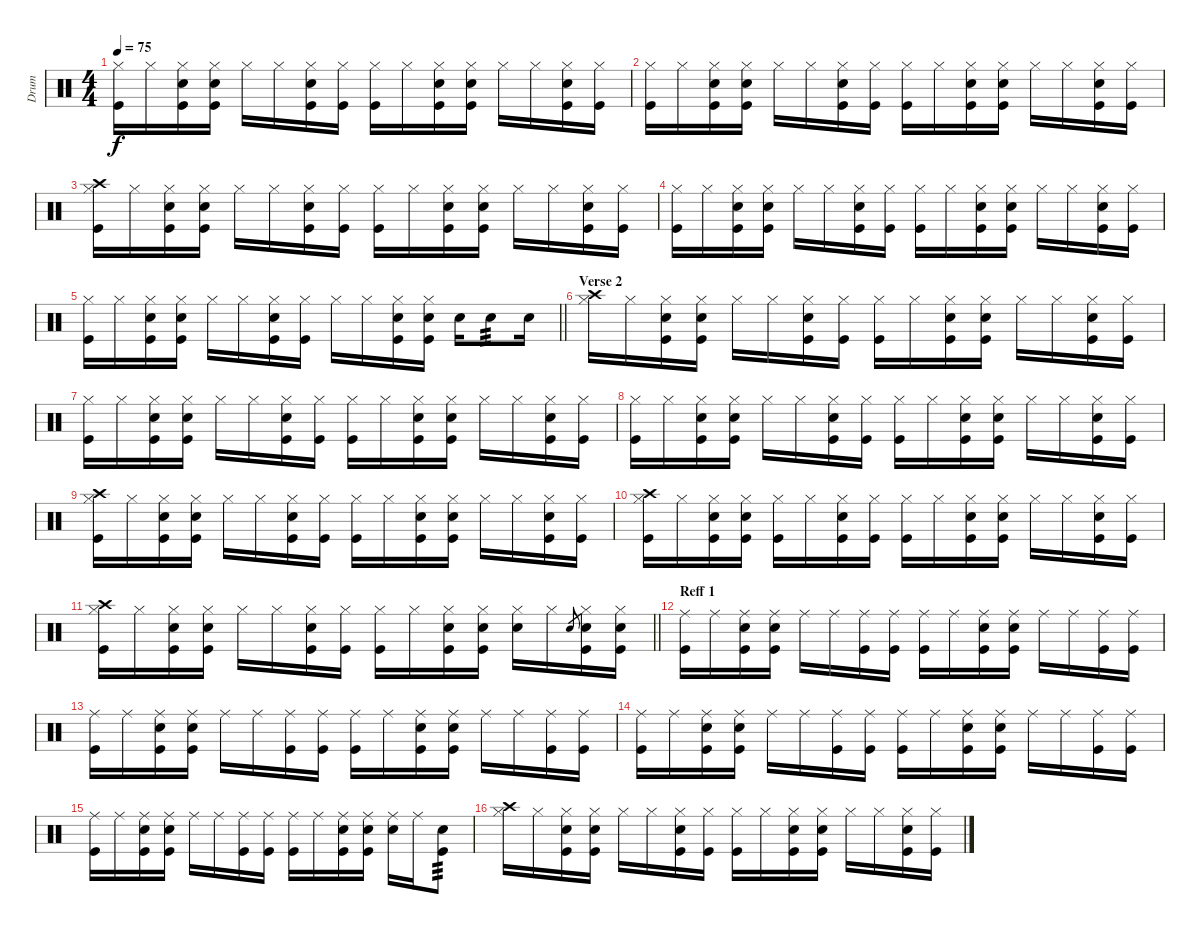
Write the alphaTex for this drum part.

\track ("Drum" "Drum") {instrument percussion}
\staff {score}
\articulation defaults
\ts (4 4)
\tempo 75
\clef neutral
\ks c
("Hi-Hat (closed)" "Kick (hit)").16{dy f} "Hi-Hat (closed)".16 ("Hi-Hat (closed)" "Electric Snare (hit)" "Kick (hit)").16 ("Hi-Hat (closed)" "Electric Snare (hit)" "Kick (hit)").16 "Hi-Hat (closed)".16 "Hi-Hat (closed)".16 ("Hi-Hat (closed)" "Electric Snare (hit)" "Kick (hit)").16 ("Hi-Hat (closed)" "Kick (hit)").16 ("Hi-Hat (closed)" "Kick (hit)").16 "Hi-Hat (closed)".16 ("Hi-Hat (closed)" "Electric Snare (hit)" "Kick (hit)").16 ("Hi-Hat (closed)" "Electric Snare (hit)" "Kick (hit)").16 "Hi-Hat (closed)".16 "Hi-Hat (closed)".16 ("Hi-Hat (closed)" "Electric Snare (hit)" "Kick (hit)").16 ("Hi-Hat (closed)" "Kick (hit)").16 |
("Hi-Hat (closed)" "Kick (hit)").16 "Hi-Hat (closed)".16 ("Hi-Hat (closed)" "Electric Snare (hit)" "Kick (hit)").16 ("Hi-Hat (closed)" "Electric Snare (hit)" "Kick (hit)").16 "Hi-Hat (closed)".16 "Hi-Hat (closed)".16 ("Hi-Hat (closed)" "Electric Snare (hit)" "Kick (hit)").16 ("Hi-Hat (closed)" "Kick (hit)").16 ("Hi-Hat (closed)" "Kick (hit)").16 "Hi-Hat (closed)".16 ("Hi-Hat (closed)" "Electric Snare (hit)" "Kick (hit)").16 ("Hi-Hat (closed)" "Electric Snare (hit)" "Kick (hit)").16 "Hi-Hat (closed)".16 "Hi-Hat (closed)".16 ("Hi-Hat (closed)" "Electric Snare (hit)" "Kick (hit)").16 ("Hi-Hat (closed)" "Kick (hit)").16 |
("Hi-Hat (closed)" "Crash high (hit)" "Kick (hit)").16 "Hi-Hat (closed)".16 ("Hi-Hat (closed)" "Electric Snare (hit)" "Kick (hit)").16 ("Hi-Hat (closed)" "Electric Snare (hit)" "Kick (hit)").16 "Hi-Hat (closed)".16 "Hi-Hat (closed)".16 ("Hi-Hat (closed)" "Electric Snare (hit)" "Kick (hit)").16 ("Hi-Hat (closed)" "Kick (hit)").16 ("Hi-Hat (closed)" "Kick (hit)").16 "Hi-Hat (closed)".16 ("Hi-Hat (closed)" "Electric Snare (hit)" "Kick (hit)").16 ("Hi-Hat (closed)" "Electric Snare (hit)" "Kick (hit)").16 "Hi-Hat (closed)".16 "Hi-Hat (closed)".16 ("Hi-Hat (closed)" "Electric Snare (hit)" "Kick (hit)").16 ("Hi-Hat (closed)" "Kick (hit)").16 |
("Hi-Hat (closed)" "Kick (hit)").16 "Hi-Hat (closed)".16 ("Hi-Hat (closed)" "Electric Snare (hit)" "Kick (hit)").16 ("Hi-Hat (closed)" "Electric Snare (hit)" "Kick (hit)").16 "Hi-Hat (closed)".16 "Hi-Hat (closed)".16 ("Hi-Hat (closed)" "Electric Snare (hit)" "Kick (hit)").16 ("Hi-Hat (closed)" "Kick (hit)").16 ("Hi-Hat (closed)" "Kick (hit)").16 "Hi-Hat (closed)".16 ("Hi-Hat (closed)" "Electric Snare (hit)" "Kick (hit)").16 ("Hi-Hat (closed)" "Electric Snare (hit)" "Kick (hit)").16 "Hi-Hat (closed)".16 "Hi-Hat (closed)".16 ("Hi-Hat (closed)" "Electric Snare (hit)" "Kick (hit)").16 ("Hi-Hat (closed)" "Kick (hit)").16 |
\barLineRight lightlight
("Hi-Hat (closed)" "Kick (hit)").16 "Hi-Hat (closed)".16 ("Hi-Hat (closed)" "Electric Snare (hit)" "Kick (hit)").16 ("Hi-Hat (closed)" "Electric Snare (hit)" "Kick (hit)").16 "Hi-Hat (closed)".16 "Hi-Hat (closed)".16 ("Hi-Hat (closed)" "Electric Snare (hit)" "Kick (hit)").16 ("Hi-Hat (closed)" "Kick (hit)").16 "Hi-Hat (closed)".16 "Hi-Hat (closed)".16 ("Hi-Hat (closed)" "Electric Snare (hit)" "Kick (hit)").16 ("Hi-Hat (closed)" "Electric Snare (hit)" "Kick (hit)").16 "Electric Snare (hit)".16 "Electric Snare (hit)".8{tp 3} "Electric Snare (hit)".16 |
\section ("" "Verse 2")
("Hi-Hat (closed)" "Crash high (hit)").16 "Hi-Hat (closed)".16 ("Hi-Hat (closed)" "Electric Snare (hit)" "Kick (hit)").16 ("Hi-Hat (closed)" "Electric Snare (hit)" "Kick (hit)").16 "Hi-Hat (closed)".16 "Hi-Hat (closed)".16 ("Hi-Hat (closed)" "Electric Snare (hit)" "Kick (hit)").16 ("Hi-Hat (closed)" "Kick (hit)").16 ("Hi-Hat (closed)" "Kick (hit)").16 "Hi-Hat (closed)".16 ("Hi-Hat (closed)" "Electric Snare (hit)" "Kick (hit)").16 ("Hi-Hat (closed)" "Electric Snare (hit)" "Kick (hit)").16 "Hi-Hat (closed)".16 "Hi-Hat (closed)".16 ("Hi-Hat (closed)" "Electric Snare (hit)" "Kick (hit)").16 ("Hi-Hat (closed)" "Kick (hit)").16 |
("Hi-Hat (closed)" "Kick (hit)").16 "Hi-Hat (closed)".16 ("Hi-Hat (closed)" "Electric Snare (hit)" "Kick (hit)").16 ("Hi-Hat (closed)" "Electric Snare (hit)" "Kick (hit)").16 "Hi-Hat (closed)".16 "Hi-Hat (closed)".16 ("Hi-Hat (closed)" "Electric Snare (hit)" "Kick (hit)").16 ("Hi-Hat (closed)" "Kick (hit)").16 ("Hi-Hat (closed)" "Kick (hit)").16 "Hi-Hat (closed)".16 ("Hi-Hat (closed)" "Electric Snare (hit)" "Kick (hit)").16 ("Hi-Hat (closed)" "Electric Snare (hit)" "Kick (hit)").16 "Hi-Hat (closed)".16 "Hi-Hat (closed)".16 ("Hi-Hat (closed)" "Electric Snare (hit)" "Kick (hit)").16 ("Hi-Hat (closed)" "Kick (hit)").16 |
("Hi-Hat (closed)" "Kick (hit)").16 "Hi-Hat (closed)".16 ("Hi-Hat (closed)" "Electric Snare (hit)" "Kick (hit)").16 ("Hi-Hat (closed)" "Electric Snare (hit)" "Kick (hit)").16 "Hi-Hat (closed)".16 "Hi-Hat (closed)".16 ("Hi-Hat (closed)" "Electric Snare (hit)" "Kick (hit)").16 ("Hi-Hat (closed)" "Kick (hit)").16 ("Hi-Hat (closed)" "Kick (hit)").16 "Hi-Hat (closed)".16 ("Hi-Hat (closed)" "Electric Snare (hit)" "Kick (hit)").16 ("Hi-Hat (closed)" "Electric Snare (hit)" "Kick (hit)").16 "Hi-Hat (closed)".16 "Hi-Hat (closed)".16 ("Hi-Hat (closed)" "Electric Snare (hit)" "Kick (hit)").16 ("Hi-Hat (closed)" "Kick (hit)").16 |
("Hi-Hat (closed)" "Crash high (hit)" "Kick (hit)").16 "Hi-Hat (closed)".16 ("Hi-Hat (closed)" "Electric Snare (hit)" "Kick (hit)").16 ("Hi-Hat (closed)" "Electric Snare (hit)" "Kick (hit)").16 "Hi-Hat (closed)".16 "Hi-Hat (closed)".16 ("Hi-Hat (closed)" "Electric Snare (hit)" "Kick (hit)").16 ("Hi-Hat (closed)" "Kick (hit)").16 ("Hi-Hat (closed)" "Kick (hit)").16 "Hi-Hat (closed)".16 ("Hi-Hat (closed)" "Electric Snare (hit)" "Kick (hit)").16 ("Hi-Hat (closed)" "Electric Snare (hit)" "Kick (hit)").16 "Hi-Hat (closed)".16 "Hi-Hat (closed)".16 ("Hi-Hat (closed)" "Electric Snare (hit)" "Kick (hit)").16 ("Hi-Hat (closed)" "Kick (hit)").16 |
("Hi-Hat (closed)" "Crash high (hit)" "Kick (hit)").16 "Hi-Hat (closed)".16 ("Hi-Hat (closed)" "Electric Snare (hit)" "Kick (hit)").16 ("Hi-Hat (closed)" "Electric Snare (hit)" "Kick (hit)").16 ("Hi-Hat (closed)" "Kick (hit)").16 "Hi-Hat (closed)".16 ("Hi-Hat (closed)" "Electric Snare (hit)" "Kick (hit)").16 ("Hi-Hat (closed)" "Kick (hit)").16 ("Hi-Hat (closed)" "Kick (hit)").16 "Hi-Hat (closed)".16 ("Hi-Hat (closed)" "Electric Snare (hit)" "Kick (hit)").16 ("Hi-Hat (closed)" "Electric Snare (hit)" "Kick (hit)").16 "Hi-Hat (closed)".16 "Hi-Hat (closed)".16 ("Hi-Hat (closed)" "Electric Snare (hit)" "Kick (hit)").16 ("Hi-Hat (closed)" "Kick (hit)").16 |
\barLineRight lightlight
("Hi-Hat (closed)" "Crash high (hit)" "Kick (hit)").16 "Hi-Hat (closed)".16 ("Hi-Hat (closed)" "Electric Snare (hit)" "Kick (hit)").16 ("Hi-Hat (closed)" "Electric Snare (hit)" "Kick (hit)").16 "Hi-Hat (closed)".16 "Hi-Hat (closed)".16 ("Hi-Hat (closed)" "Electric Snare (hit)" "Kick (hit)").16 ("Hi-Hat (closed)" "Kick (hit)").16 ("Hi-Hat (closed)" "Kick (hit)").16 "Hi-Hat (closed)".16 ("Hi-Hat (closed)" "Electric Snare (hit)" "Kick (hit)").16 ("Hi-Hat (closed)" "Electric Snare (hit)" "Kick (hit)").16 ("Hi-Hat (closed)" "Electric Snare (hit)").16 "Hi-Hat (closed)".16 "Electric Snare (hit)".8{gr} ("Hi-Hat (closed)" "Electric Snare (hit)" "Kick (hit)").16 ("Hi-Hat (closed)" "Electric Snare (hit)" "Kick (hit)").16 |
\section ("" "Reff 1")
("Ride (middle)" "Kick (hit)").16 "Ride (middle)".16 ("Ride (middle)" "Electric Snare (hit)" "Kick (hit)").16 ("Ride (middle)" "Electric Snare (hit)" "Kick (hit)").16 "Ride (middle)".16 "Ride (middle)".16 ("Ride (middle)" "Kick (hit)").16 ("Ride (middle)" "Kick (hit)").16 ("Ride (middle)" "Kick (hit)").16 "Ride (middle)".16 ("Ride (middle)" "Electric Snare (hit)" "Kick (hit)").16 ("Ride (middle)" "Electric Snare (hit)" "Kick (hit)").16 "Ride (middle)".16 "Ride (middle)".16 ("Ride (middle)" "Kick (hit)").16 ("Ride (middle)" "Kick (hit)").16 |
("Ride (middle)" "Kick (hit)").16 "Ride (middle)".16 ("Ride (middle)" "Electric Snare (hit)" "Kick (hit)").16 ("Ride (middle)" "Electric Snare (hit)" "Kick (hit)").16 "Ride (middle)".16 "Ride (middle)".16 ("Ride (middle)" "Kick (hit)").16 ("Ride (middle)" "Kick (hit)").16 ("Ride (middle)" "Kick (hit)").16 "Ride (middle)".16 ("Ride (middle)" "Electric Snare (hit)" "Kick (hit)").16 ("Ride (middle)" "Electric Snare (hit)" "Kick (hit)").16 "Ride (middle)".16 "Ride (middle)".16 ("Ride (middle)" "Kick (hit)").16 ("Ride (middle)" "Kick (hit)").16 |
("Ride (middle)" "Kick (hit)").16 "Ride (middle)".16 ("Ride (middle)" "Electric Snare (hit)" "Kick (hit)").16 ("Ride (middle)" "Electric Snare (hit)" "Kick (hit)").16 "Ride (middle)".16 "Ride (middle)".16 ("Ride (middle)" "Kick (hit)").16 ("Ride (middle)" "Kick (hit)").16 ("Ride (middle)" "Kick (hit)").16 "Ride (middle)".16 ("Ride (middle)" "Electric Snare (hit)" "Kick (hit)").16 ("Ride (middle)" "Electric Snare (hit)" "Kick (hit)").16 "Ride (middle)".16 "Ride (middle)".16 ("Ride (middle)" "Kick (hit)").16 ("Ride (middle)" "Kick (hit)").16 |
("Ride (middle)" "Kick (hit)").16 "Ride (middle)".16 ("Ride (middle)" "Electric Snare (hit)" "Kick (hit)").16 ("Ride (middle)" "Electric Snare (hit)" "Kick (hit)").16 "Ride (middle)".16 "Ride (middle)".16 ("Ride (middle)" "Kick (hit)").16 ("Ride (middle)" "Kick (hit)").16 ("Ride (middle)" "Kick (hit)").16 "Ride (middle)".16 ("Ride (middle)" "Electric Snare (hit)" "Kick (hit)").16 ("Ride (middle)" "Electric Snare (hit)" "Kick (hit)").16 ("Ride (middle)" "Electric Snare (hit)").16 "Ride (middle)".16 ("Electric Snare (hit)" "Kick (hit)").8{tp 3} |
("Hi-Hat (closed)" "Crash high (hit)").16 "Hi-Hat (closed)".16 ("Hi-Hat (closed)" "Electric Snare (hit)" "Kick (hit)").16 ("Hi-Hat (closed)" "Electric Snare (hit)" "Kick (hit)").16 "Hi-Hat (closed)".16 "Hi-Hat (closed)".16 ("Hi-Hat (closed)" "Electric Snare (hit)" "Kick (hit)").16 ("Hi-Hat (closed)" "Kick (hit)").16 ("Hi-Hat (closed)" "Kick (hit)").16 "Hi-Hat (closed)".16 ("Hi-Hat (closed)" "Electric Snare (hit)" "Kick (hit)").16 ("Hi-Hat (closed)" "Electric Snare (hit)" "Kick (hit)").16 "Hi-Hat (closed)".16 "Hi-Hat (closed)".16 ("Hi-Hat (closed)" "Electric Snare (hit)" "Kick (hit)").16 ("Hi-Hat (closed)" "Kick (hit)").16
